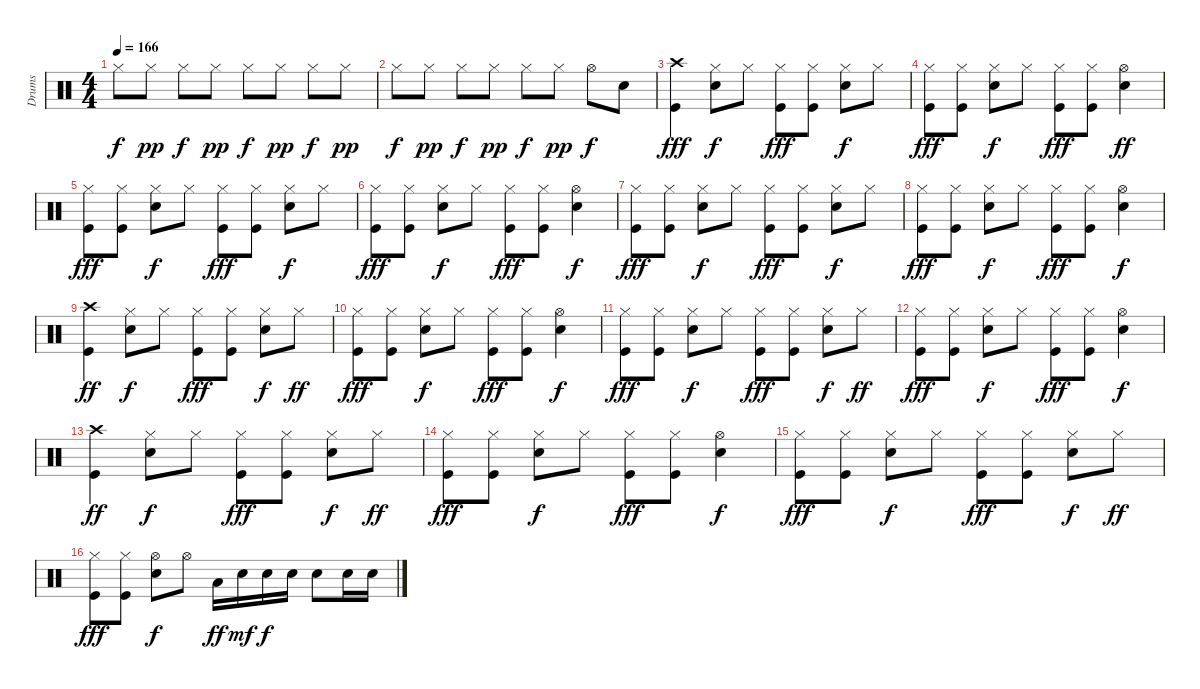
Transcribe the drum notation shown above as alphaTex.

\track ("Drums" "Drums") {instrument percussion}
\staff {score}
\articulation defaults
\ts (4 4)
\tempo 166
\clef neutral
\ks c "Hi-Hat (closed)".8{dy f} "Hi-Hat (closed)".8{dy pp} "Hi-Hat (closed)".8{dy f} "Hi-Hat (closed)".8{dy pp} "Hi-Hat (closed)".8{dy f} "Hi-Hat (closed)".8{dy pp} "Hi-Hat (closed)".8{dy f} "Hi-Hat (closed)".8{dy pp}
|
"Hi-Hat (closed)".8{dy f} "Hi-Hat (closed)".8{dy pp} "Hi-Hat (closed)".8{dy f} "Hi-Hat (closed)".8{dy pp} "Hi-Hat (closed)".8{dy f} "Hi-Hat (closed)".8{dy pp} "Hi-Hat (open)".8{dy f} "Snare (hit) 2".8 |
("Crash high (hit)" "Kick (hit)").4{dy fff} ("Hi-Hat (closed)" "Snare (hit) 2").8{dy f} "Hi-Hat (closed)".8 ("Hi-Hat (closed)" "Kick (hit)").8{dy fff} ("Hi-Hat (closed)" "Kick (hit)").8 ("Hi-Hat (closed)" "Snare (hit) 2").8{dy f} "Hi-Hat (closed)".8 |
("Hi-Hat (closed)" "Kick (hit)").8{dy fff} ("Hi-Hat (closed)" "Kick (hit)").8 ("Hi-Hat (closed)" "Snare (hit) 2").8{dy f} "Hi-Hat (closed)".8 ("Hi-Hat (closed)" "Kick (hit)").8{dy fff} ("Hi-Hat (closed)" "Kick (hit)").8 ("Hi-Hat (open)" "Snare (hit) 2").4{dy ff} |
("Hi-Hat (closed)" "Kick (hit)").8{dy fff} ("Hi-Hat (closed)" "Kick (hit)").8 ("Hi-Hat (closed)" "Snare (hit) 2").8{dy f} "Hi-Hat (closed)".8 ("Hi-Hat (closed)" "Kick (hit)").8{dy fff} ("Hi-Hat (closed)" "Kick (hit)").8 ("Hi-Hat (closed)" "Snare (hit) 2").8{dy f} "Hi-Hat (closed)".8 |
("Hi-Hat (closed)" "Kick (hit)").8{dy fff} ("Hi-Hat (closed)" "Kick (hit)").8 ("Hi-Hat (closed)" "Snare (hit) 2").8{dy f} "Hi-Hat (closed)".8 ("Hi-Hat (closed)" "Kick (hit)").8{dy fff} ("Hi-Hat (closed)" "Kick (hit)").8 ("Hi-Hat (open)" "Snare (hit) 2").4{dy f} |
("Hi-Hat (closed)" "Kick (hit)").8{dy fff} ("Hi-Hat (closed)" "Kick (hit)").8 ("Hi-Hat (closed)" "Snare (hit) 2").8{dy f} "Hi-Hat (closed)".8 ("Hi-Hat (closed)" "Kick (hit)").8{dy fff} ("Hi-Hat (closed)" "Kick (hit)").8 ("Hi-Hat (closed)" "Snare (hit) 2").8{dy f} "Hi-Hat (closed)".8 |
("Hi-Hat (closed)" "Kick (hit)").8{dy fff} ("Hi-Hat (closed)" "Kick (hit)").8 ("Hi-Hat (closed)" "Snare (hit) 2").8{dy f} "Hi-Hat (closed)".8 ("Hi-Hat (closed)" "Kick (hit)").8{dy fff} ("Hi-Hat (closed)" "Kick (hit)").8 ("Hi-Hat (open)" "Snare (hit) 2").4{dy f} |
("Crash high (hit)" "Kick (hit)").4{dy ff} ("Hi-Hat (closed)" "Snare (hit) 2").8{dy f} "Hi-Hat (closed)".8 ("Hi-Hat (closed)" "Kick (hit)").8{dy fff} ("Hi-Hat (closed)" "Kick (hit)").8 ("Hi-Hat (closed)" "Snare (hit) 2").8{dy f} "Hi-Hat (closed)".8{dy ff} |
("Hi-Hat (closed)" "Kick (hit)").8{dy fff} ("Hi-Hat (closed)" "Kick (hit)").8 ("Hi-Hat (closed)" "Snare (hit) 2").8{dy f} "Hi-Hat (closed)".8 ("Hi-Hat (closed)" "Kick (hit)").8{dy fff} ("Hi-Hat (closed)" "Kick (hit)").8 ("Hi-Hat (open)" "Snare (hit) 2").4{dy f} |
("Hi-Hat (closed)" "Kick (hit)").8{dy fff} ("Hi-Hat (closed)" "Kick (hit)").8 ("Hi-Hat (closed)" "Snare (hit) 2").8{dy f} "Hi-Hat (closed)".8 ("Hi-Hat (closed)" "Kick (hit)").8{dy fff} ("Hi-Hat (closed)" "Kick (hit)").8 ("Hi-Hat (closed)" "Snare (hit) 2").8{dy f} "Hi-Hat (closed)".8{dy ff} |
("Hi-Hat (closed)" "Kick (hit)").8{dy fff} ("Hi-Hat (closed)" "Kick (hit)").8 ("Hi-Hat (closed)" "Snare (hit) 2").8{dy f} "Hi-Hat (closed)".8 ("Hi-Hat (closed)" "Kick (hit)").8{dy fff} ("Hi-Hat (closed)" "Kick (hit)").8 ("Hi-Hat (open)" "Snare (hit) 2").4{dy f} |
("Crash high (hit)" "Kick (hit)").4{dy ff} ("Hi-Hat (closed)" "Snare (hit) 2").8{dy f} "Hi-Hat (closed)".8 ("Hi-Hat (closed)" "Kick (hit)").8{dy fff} ("Hi-Hat (closed)" "Kick (hit)").8 ("Hi-Hat (closed)" "Snare (hit) 2").8{dy f} "Hi-Hat (closed)".8{dy ff} |
("Hi-Hat (closed)" "Kick (hit)").8{dy fff} ("Hi-Hat (closed)" "Kick (hit)").8 ("Hi-Hat (closed)" "Snare (hit) 2").8{dy f} "Hi-Hat (closed)".8 ("Hi-Hat (closed)" "Kick (hit)").8{dy fff} ("Hi-Hat (closed)" "Kick (hit)").8 ("Hi-Hat (open)" "Snare (hit) 2").4{dy f} |
("Hi-Hat (closed)" "Kick (hit)").8{dy fff} ("Hi-Hat (closed)" "Kick (hit)").8 ("Hi-Hat (closed)" "Snare (hit) 2").8{dy f} "Hi-Hat (closed)".8 ("Hi-Hat (closed)" "Kick (hit)").8{dy fff} ("Hi-Hat (closed)" "Kick (hit)").8 ("Hi-Hat (closed)" "Snare (hit) 2").8{dy f} "Hi-Hat (closed)".8{dy ff} |
("Hi-Hat (closed)" "Kick (hit)").8{dy fff} ("Hi-Hat (closed)" "Kick (hit)").8 ("Hi-Hat (open)" "Snare (hit) 2").8{dy f} "Hi-Hat (open)".8 "Low Tom (hit)".16{dy ff} "Snare (hit) 2".16{dy mf} "Snare (hit) 2".16{dy f} "Snare (hit) 2".16 "Snare (hit) 2".8 "Snare (hit) 2".16 "Snare (hit) 2".16
